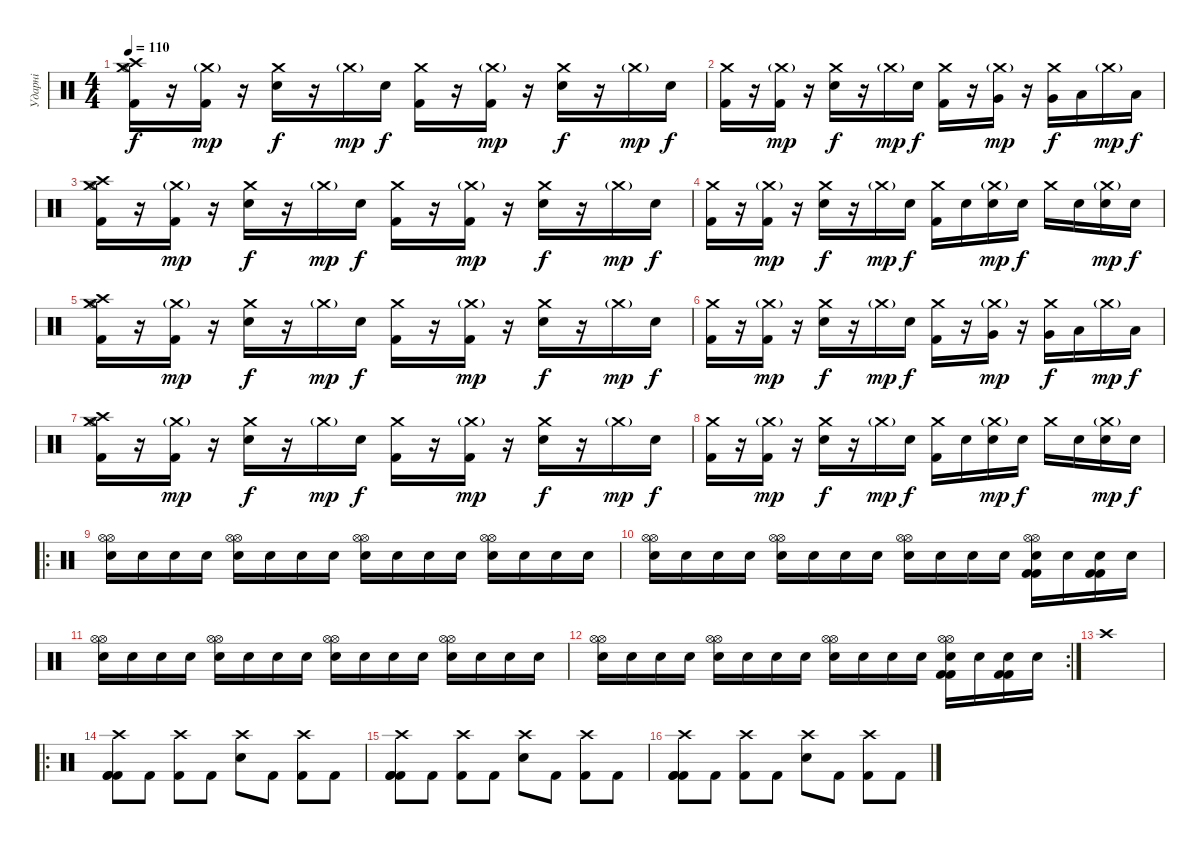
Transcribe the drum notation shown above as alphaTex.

\track ("Ударні" "Ударні") {instrument percussion}
\staff {score}
\articulation defaults
\ts (4 4)
\tempo 110
\clef neutral
\ks c
("Crash high (hit)" "Crash medium (hit)" "Hi-Hat (open)" "Kick (hit) 2").16{dy f volume 14} r.16 ("Crash medium (hit)"{g} "Kick (hit) 2").16{dy mp} r.16 ("Crash medium (hit)" "Electric Snare (hit)").16{dy f} r.16 "Crash medium (hit)"{g}.16{dy mp} "Electric Snare (hit)".16{dy f} ("Crash medium (hit)" "Kick (hit) 2").16 r.16 ("Crash medium (hit)"{g} "Kick (hit) 2").16{dy mp} r.16 ("Crash medium (hit)" "Electric Snare (hit)").16{dy f} r.16 "Crash medium (hit)"{g}.16{dy mp} "Electric Snare (hit)".16{dy f} |
("Crash medium (hit)" "Kick (hit) 2").16{volume 14} r.16 ("Crash medium (hit)"{g} "Kick (hit) 2").16{dy mp} r.16 ("Crash medium (hit)" "Electric Snare (hit)").16{dy f} r.16 "Crash medium (hit)"{g}.16{dy mp} "Electric Snare (hit)".16{dy f} ("Crash medium (hit)" "Kick (hit) 2").16 r.16 ("Crash medium (hit)"{g} "Very Low Tom (hit)").16{dy mp} r.16 ("Crash medium (hit)" "Very Low Tom (hit)").16{dy f} "Low Floor Tom (hit)".16 "Crash medium (hit)"{g}.16{dy mp} "Low Floor Tom (hit)".16{dy f} |
("Crash high (hit)" "Crash medium (hit)" "Hi-Hat (open)" "Kick (hit) 2").16{volume 14} r.16 ("Crash medium (hit)"{g} "Kick (hit) 2").16{dy mp} r.16 ("Crash medium (hit)" "Electric Snare (hit)").16{dy f} r.16 "Crash medium (hit)"{g}.16{dy mp} "Electric Snare (hit)".16{dy f} ("Crash medium (hit)" "Kick (hit) 2").16 r.16 ("Crash medium (hit)"{g} "Kick (hit) 2").16{dy mp} r.16 ("Crash medium (hit)" "Electric Snare (hit)").16{dy f} r.16 "Crash medium (hit)"{g}.16{dy mp} "Electric Snare (hit)".16{dy f} |
("Crash medium (hit)" "Kick (hit) 2").16{volume 14} r.16 ("Crash medium (hit)"{g} "Kick (hit) 2").16{dy mp} r.16 ("Crash medium (hit)" "Electric Snare (hit)").16{dy f} r.16 "Crash medium (hit)"{g}.16{dy mp} "Electric Snare (hit)".16{dy f} ("Crash medium (hit)" "Kick (hit) 2").16 "Electric Snare (hit)".16 ("Crash medium (hit)"{g} "Electric Snare (hit)").16{dy mp} "Electric Snare (hit)".16{dy f} "Crash medium (hit)".16 "Electric Snare (hit)".16 ("Crash medium (hit)"{g} "Electric Snare (hit)").16{dy mp} "Electric Snare (hit)".16{dy f} |
("Crash high (hit)" "Crash medium (hit)" "Hi-Hat (open)" "Kick (hit) 2").16{volume 14} r.16 ("Crash medium (hit)"{g} "Kick (hit) 2").16{dy mp} r.16 ("Crash medium (hit)" "Electric Snare (hit)").16{dy f} r.16 "Crash medium (hit)"{g}.16{dy mp} "Electric Snare (hit)".16{dy f} ("Crash medium (hit)" "Kick (hit) 2").16 r.16 ("Crash medium (hit)"{g} "Kick (hit) 2").16{dy mp} r.16 ("Crash medium (hit)" "Electric Snare (hit)").16{dy f} r.16 "Crash medium (hit)"{g}.16{dy mp} "Electric Snare (hit)".16{dy f} |
("Crash medium (hit)" "Kick (hit) 2").16{volume 14} r.16 ("Crash medium (hit)"{g} "Kick (hit) 2").16{dy mp} r.16 ("Crash medium (hit)" "Electric Snare (hit)").16{dy f} r.16 "Crash medium (hit)"{g}.16{dy mp} "Electric Snare (hit)".16{dy f} ("Crash medium (hit)" "Kick (hit) 2").16 r.16 ("Crash medium (hit)"{g} "Very Low Tom (hit)").16{dy mp} r.16 ("Crash medium (hit)" "Very Low Tom (hit)").16{dy f} "Low Floor Tom (hit)".16 "Crash medium (hit)"{g}.16{dy mp} "Low Floor Tom (hit)".16{dy f} |
("Crash high (hit)" "Crash medium (hit)" "Hi-Hat (open)" "Kick (hit) 2").16{volume 14} r.16 ("Crash medium (hit)"{g} "Kick (hit) 2").16{dy mp} r.16 ("Crash medium (hit)" "Electric Snare (hit)").16{dy f} r.16 "Crash medium (hit)"{g}.16{dy mp} "Electric Snare (hit)".16{dy f} ("Crash medium (hit)" "Kick (hit) 2").16 r.16 ("Crash medium (hit)"{g} "Kick (hit) 2").16{dy mp} r.16 ("Crash medium (hit)" "Electric Snare (hit)").16{dy f} r.16 "Crash medium (hit)"{g}.16{dy mp} "Electric Snare (hit)".16{dy f} |
("Crash medium (hit)" "Kick (hit) 2").16{volume 14} r.16 ("Crash medium (hit)"{g} "Kick (hit) 2").16{dy mp} r.16 ("Crash medium (hit)" "Electric Snare (hit)").16{dy f} r.16 "Crash medium (hit)"{g}.16{dy mp} "Electric Snare (hit)".16{dy f} ("Crash medium (hit)" "Kick (hit) 2").16 "Electric Snare (hit)".16 ("Crash medium (hit)"{g} "Electric Snare (hit)").16{dy mp} "Electric Snare (hit)".16{dy f} "Crash medium (hit)".16 "Electric Snare (hit)".16 ("Crash medium (hit)"{g} "Electric Snare (hit)").16{dy mp} "Electric Snare (hit)".16{dy f} |
\ro
("Electric Snare (hit)" "Hi-Hat (open)" "Hi-Hat (open)").16 "Electric Snare (hit)".16 "Electric Snare (hit)".16 "Electric Snare (hit)".16 ("Electric Snare (hit)" "Hi-Hat (open)" "Hi-Hat (open)").16 "Electric Snare (hit)".16 "Electric Snare (hit)".16 "Electric Snare (hit)".16 ("Electric Snare (hit)" "Hi-Hat (open)" "Hi-Hat (open)").16 "Electric Snare (hit)".16 "Electric Snare (hit)".16 "Electric Snare (hit)".16 ("Electric Snare (hit)" "Hi-Hat (open)" "Hi-Hat (open)").16 "Electric Snare (hit)".16 "Electric Snare (hit)".16 "Electric Snare (hit)".16 |
("Electric Snare (hit)" "Hi-Hat (open)" "Hi-Hat (open)").16 "Electric Snare (hit)".16 "Electric Snare (hit)".16 "Electric Snare (hit)".16 ("Electric Snare (hit)" "Hi-Hat (open)" "Hi-Hat (open)").16 "Electric Snare (hit)".16 "Electric Snare (hit)".16 "Electric Snare (hit)".16 ("Electric Snare (hit)" "Hi-Hat (open)" "Hi-Hat (open)").16 "Electric Snare (hit)".16 "Electric Snare (hit)".16 "Electric Snare (hit)".16 ("Electric Snare (hit)" "Hi-Hat (open)" "Hi-Hat (open)" "Kick (hit) 2" "Kick (hit) 2").16 "Electric Snare (hit)".16 ("Electric Snare (hit)" "Kick (hit) 2" "Kick (hit) 2").16 "Electric Snare (hit)".16 |
("Electric Snare (hit)" "Hi-Hat (open)" "Hi-Hat (open)").16 "Electric Snare (hit)".16 "Electric Snare (hit)".16 "Electric Snare (hit)".16 ("Electric Snare (hit)" "Hi-Hat (open)" "Hi-Hat (open)").16 "Electric Snare (hit)".16 "Electric Snare (hit)".16 "Electric Snare (hit)".16 ("Electric Snare (hit)" "Hi-Hat (open)" "Hi-Hat (open)").16 "Electric Snare (hit)".16 "Electric Snare (hit)".16 "Electric Snare (hit)".16 ("Electric Snare (hit)" "Hi-Hat (open)" "Hi-Hat (open)").16 "Electric Snare (hit)".16 "Electric Snare (hit)".16 "Electric Snare (hit)".16 |
\rc 2
("Electric Snare (hit)" "Hi-Hat (open)" "Hi-Hat (open)").16 "Electric Snare (hit)".16 "Electric Snare (hit)".16 "Electric Snare (hit)".16 ("Electric Snare (hit)" "Hi-Hat (open)" "Hi-Hat (open)").16 "Electric Snare (hit)".16 "Electric Snare (hit)".16 "Electric Snare (hit)".16 ("Electric Snare (hit)" "Hi-Hat (open)" "Hi-Hat (open)").16 "Electric Snare (hit)".16 "Electric Snare (hit)".16 "Electric Snare (hit)".16 ("Electric Snare (hit)" "Hi-Hat (open)" "Hi-Hat (open)" "Kick (hit) 2" "Kick (hit) 2").16 "Electric Snare (hit)".16 ("Electric Snare (hit)" "Kick (hit) 2" "Kick (hit) 2").16 "Electric Snare (hit)".16 |
"Crash high (hit)".1 |
\ro
("Crash high (hit)" "Kick (hit) 2" "Kick (hit) 2" "Kick (hit) 2").8 "Kick (hit) 2".8 ("Crash high (hit)" "Kick (hit) 2").8 "Kick (hit) 2".8 ("Crash high (hit)" "Electric Snare (hit)").8 "Kick (hit) 2".8 ("Crash high (hit)" "Kick (hit) 2").8 "Kick (hit) 2".8 |
("Crash high (hit)" "Kick (hit) 2" "Kick (hit) 2" "Kick (hit) 2").8 "Kick (hit) 2".8 ("Crash high (hit)" "Kick (hit) 2").8 "Kick (hit) 2".8 ("Crash high (hit)" "Electric Snare (hit)").8 "Kick (hit) 2".8 ("Crash high (hit)" "Kick (hit) 2").8 "Kick (hit) 2".8 |
("Crash high (hit)" "Kick (hit) 2" "Kick (hit) 2" "Kick (hit) 2").8 "Kick (hit) 2".8 ("Crash high (hit)" "Kick (hit) 2").8 "Kick (hit) 2".8 ("Crash high (hit)" "Electric Snare (hit)").8 "Kick (hit) 2".8 ("Crash high (hit)" "Kick (hit) 2").8 "Kick (hit) 2".8
